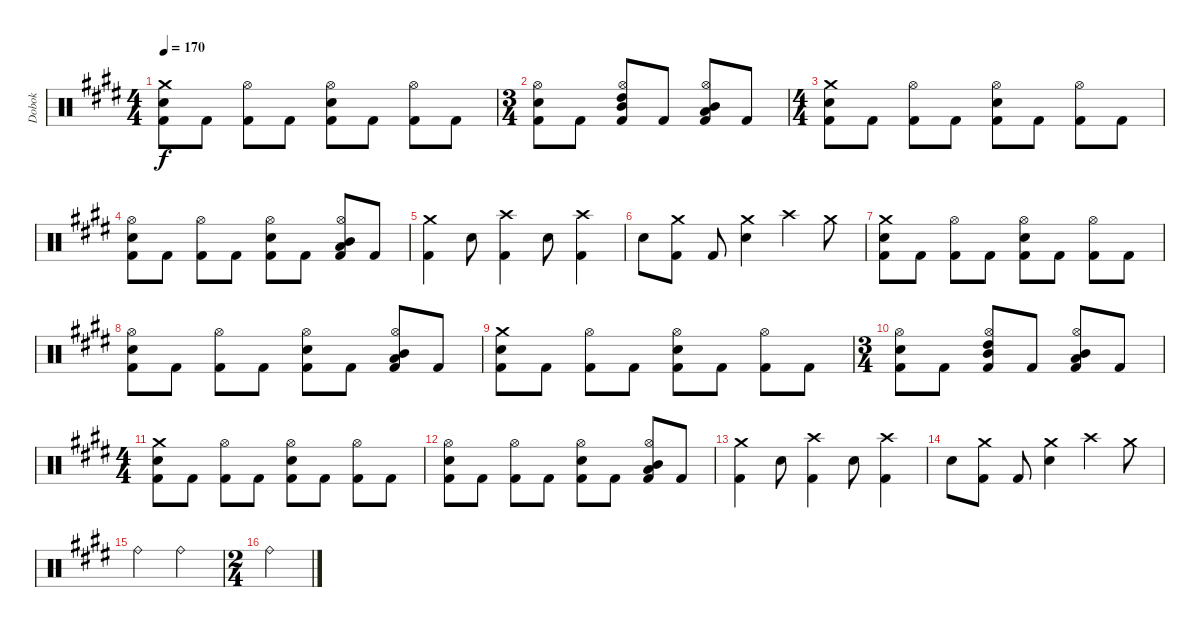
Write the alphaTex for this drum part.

\track ("Dobok" "Dobok") {instrument percussion}
\staff {score}
\articulation defaults
\ts (4 4)
\tempo 170
\clef neutral
\ks c#minor
("Crash medium (hit)" "Snare (hit) 2" "Kick (hit) 2").8{dy f} "Kick (hit) 2".8 ("Hi-Hat (open)" "Kick (hit) 2").8 "Kick (hit) 2".8 ("Hi-Hat (open)" "Snare (hit) 2" "Kick (hit) 2").8 "Kick (hit) 2".8 ("Hi-Hat (open)" "Kick (hit) 2").8 "Kick (hit) 2".8 |
\ts (3 4)
("Hi-Hat (open)" "Snare (hit) 2" "Kick (hit) 2").8 "Kick (hit) 2".8 ("Hi-Hat (open)" "High Tom (hit)" "Mid Tom (hit)" "Kick (hit) 2").8 "Kick (hit) 2".8 ("Hi-Hat (open)" "Mid Tom (hit)" "Low Tom (hit)" "Kick (hit) 2").8 "Kick (hit) 2".8 |
\ts (4 4)
("Crash medium (hit)" "Snare (hit) 2" "Kick (hit) 2").8 "Kick (hit) 2".8 ("Hi-Hat (open)" "Kick (hit) 2").8 "Kick (hit) 2".8 ("Hi-Hat (open)" "Snare (hit) 2" "Kick (hit) 2").8 "Kick (hit) 2".8 ("Hi-Hat (open)" "Kick (hit) 2").8 "Kick (hit) 2".8 |
("Hi-Hat (open)" "Snare (hit) 2" "Kick (hit) 2").8 "Kick (hit) 2".8 ("Hi-Hat (open)" "Kick (hit) 2").8 "Kick (hit) 2".8 ("Hi-Hat (open)" "Snare (hit) 2" "Kick (hit) 2").8 "Kick (hit) 2".8 ("Hi-Hat (open)" "Low Tom (hit)" "Mid Tom (hit)" "Kick (hit) 2").8 "Kick (hit) 2".8 |
("Crash medium (hit)" "Kick (hit) 2").4 "Snare (hit) 2".8 ("Crash high (hit)" "Kick (hit) 2").4 "Snare (hit) 2".8 ("Crash high (hit)" "Kick (hit) 2").4 |
"Snare (hit) 2".8 ("Crash medium (hit)" "Kick (hit) 2").8 "Kick (hit) 2".8 ("Crash medium (hit)" "Snare (hit) 2").4 "Crash high (hit)".4 "Crash medium (hit)".8 |
("Crash medium (hit)" "Snare (hit) 2" "Kick (hit) 2").8 "Kick (hit) 2".8 ("Hi-Hat (open)" "Kick (hit) 2").8 "Kick (hit) 2".8 ("Hi-Hat (open)" "Snare (hit) 2" "Kick (hit) 2").8 "Kick (hit) 2".8 ("Hi-Hat (open)" "Kick (hit) 2").8 "Kick (hit) 2".8 |
("Hi-Hat (open)" "Snare (hit) 2" "Kick (hit) 2").8 "Kick (hit) 2".8 ("Hi-Hat (open)" "Kick (hit) 2").8 "Kick (hit) 2".8 ("Hi-Hat (open)" "Snare (hit) 2" "Kick (hit) 2").8 "Kick (hit) 2".8 ("Hi-Hat (open)" "Low Tom (hit)" "Mid Tom (hit)" "Kick (hit) 2").8 "Kick (hit) 2".8 |
("Crash medium (hit)" "Snare (hit) 2" "Kick (hit) 2").8 "Kick (hit) 2".8 ("Hi-Hat (open)" "Kick (hit) 2").8 "Kick (hit) 2".8 ("Hi-Hat (open)" "Snare (hit) 2" "Kick (hit) 2").8 "Kick (hit) 2".8 ("Hi-Hat (open)" "Kick (hit) 2").8 "Kick (hit) 2".8 |
\ts (3 4)
("Hi-Hat (open)" "Snare (hit) 2" "Kick (hit) 2").8 "Kick (hit) 2".8 ("Hi-Hat (open)" "High Tom (hit)" "Mid Tom (hit)" "Kick (hit) 2").8 "Kick (hit) 2".8 ("Hi-Hat (open)" "Mid Tom (hit)" "Low Tom (hit)" "Kick (hit) 2").8 "Kick (hit) 2".8 |
\ts (4 4)
("Crash medium (hit)" "Snare (hit) 2" "Kick (hit) 2").8 "Kick (hit) 2".8 ("Hi-Hat (open)" "Kick (hit) 2").8 "Kick (hit) 2".8 ("Hi-Hat (open)" "Snare (hit) 2" "Kick (hit) 2").8 "Kick (hit) 2".8 ("Hi-Hat (open)" "Kick (hit) 2").8 "Kick (hit) 2".8 |
("Hi-Hat (open)" "Snare (hit) 2" "Kick (hit) 2").8 "Kick (hit) 2".8 ("Hi-Hat (open)" "Kick (hit) 2").8 "Kick (hit) 2".8 ("Hi-Hat (open)" "Snare (hit) 2" "Kick (hit) 2").8 "Kick (hit) 2".8 ("Hi-Hat (open)" "Low Tom (hit)" "Mid Tom (hit)" "Kick (hit) 2").8 "Kick (hit) 2".8 |
("Crash medium (hit)" "Kick (hit) 2").4 "Snare (hit) 2".8 ("Crash high (hit)" "Kick (hit) 2").4 "Snare (hit) 2".8 ("Crash high (hit)" "Kick (hit) 2").4 |
"Snare (hit) 2".8 ("Crash medium (hit)" "Kick (hit) 2").8 "Kick (hit) 2".8 ("Crash medium (hit)" "Snare (hit) 2").4 "Crash high (hit)".4 "Crash medium (hit)".8 |
"Ride (bell)".2 "Ride (bell)".2 |
\ts (2 4)
"Ride (bell)".2
